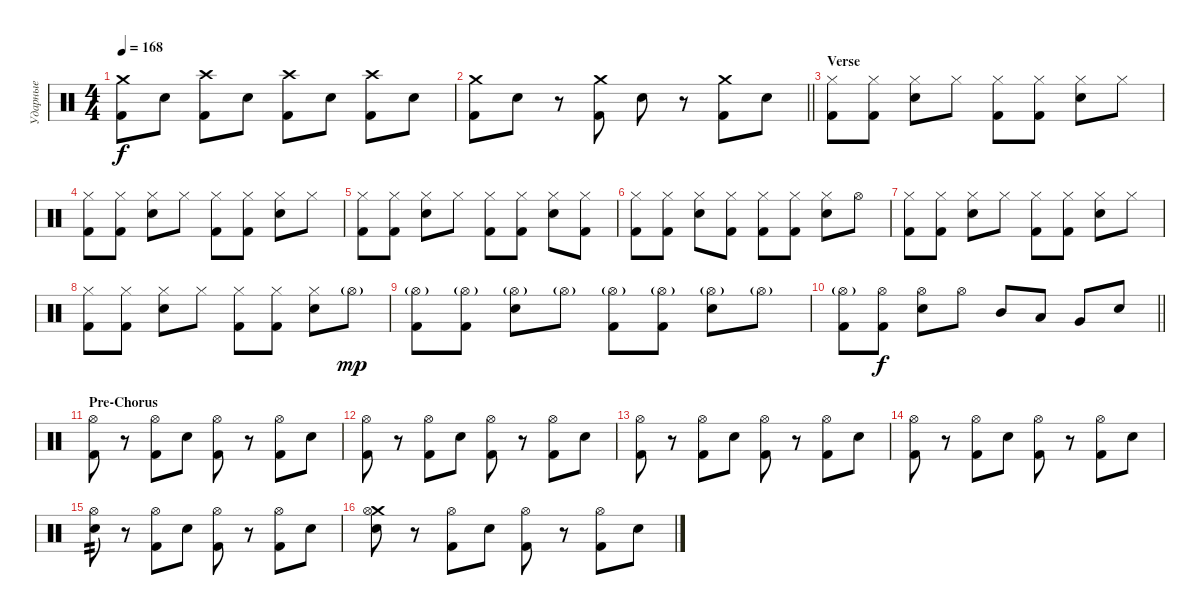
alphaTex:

\track ("Ударные" "Ударные") {instrument percussion}
\staff {score}
\articulation defaults
\ts (4 4)
\tempo 168
\clef neutral
\ks c
("Crash medium (hit)" "Kick (hit) 2").8{dy f} "Snare (hit) 2".8 ("Crash high (hit)" "Kick (hit) 2").8 "Snare (hit) 2".8 ("Crash high (hit)" "Kick (hit) 2").8 "Snare (hit) 2".8 ("Crash high (hit)" "Kick (hit) 2").8 "Snare (hit) 2".8 |
\barLineRight lightlight
("Crash medium (hit)" "Kick (hit) 2").8 "Snare (hit) 2".8 r.8 ("Crash medium (hit)" "Kick (hit) 2").8 "Snare (hit) 2".8 r.8 ("Crash medium (hit)" "Kick (hit) 2").8 "Snare (hit) 2".8 |
\section ("" "Verse")
("Hi-Hat (closed)" "Kick (hit) 2").8 ("Hi-Hat (closed)" "Kick (hit) 2").8 ("Hi-Hat (closed)" "Snare (hit) 2").8 "Hi-Hat (closed)".8 ("Hi-Hat (closed)" "Kick (hit) 2").8 ("Hi-Hat (closed)" "Kick (hit) 2").8 ("Hi-Hat (closed)" "Snare (hit) 2").8 "Hi-Hat (closed)".8 |
("Hi-Hat (closed)" "Kick (hit) 2").8 ("Hi-Hat (closed)" "Kick (hit) 2").8 ("Hi-Hat (closed)" "Snare (hit) 2").8 "Hi-Hat (closed)".8 ("Hi-Hat (closed)" "Kick (hit) 2").8 ("Hi-Hat (closed)" "Kick (hit) 2").8 ("Hi-Hat (closed)" "Snare (hit) 2").8 "Hi-Hat (closed)".8 |
("Hi-Hat (closed)" "Kick (hit) 2").8 ("Hi-Hat (closed)" "Kick (hit) 2").8 ("Hi-Hat (closed)" "Snare (hit) 2").8 "Hi-Hat (closed)".8 ("Hi-Hat (closed)" "Kick (hit) 2").8 ("Hi-Hat (closed)" "Kick (hit) 2").8 ("Hi-Hat (closed)" "Snare (hit) 2").8 ("Hi-Hat (closed)" "Kick (hit) 2").8 |
("Hi-Hat (closed)" "Kick (hit) 2").8 ("Hi-Hat (closed)" "Kick (hit) 2").8 ("Hi-Hat (closed)" "Snare (hit) 2").8 ("Hi-Hat (closed)" "Kick (hit) 2").8 ("Hi-Hat (closed)" "Kick (hit) 2").8 ("Hi-Hat (closed)" "Kick (hit) 2").8 ("Hi-Hat (closed)" "Snare (hit) 2").8 "Hi-Hat (open)".8 |
("Hi-Hat (closed)" "Kick (hit) 2").8 ("Hi-Hat (closed)" "Kick (hit) 2").8 ("Hi-Hat (closed)" "Snare (hit) 2").8 "Hi-Hat (closed)".8 ("Hi-Hat (closed)" "Kick (hit) 2").8 ("Hi-Hat (closed)" "Kick (hit) 2").8 ("Hi-Hat (closed)" "Snare (hit) 2").8 "Hi-Hat (closed)".8 |
("Hi-Hat (closed)" "Kick (hit) 2").8 ("Hi-Hat (closed)" "Kick (hit) 2").8 ("Hi-Hat (closed)" "Snare (hit) 2").8 "Hi-Hat (closed)".8 ("Hi-Hat (closed)" "Kick (hit) 2").8 ("Hi-Hat (closed)" "Kick (hit) 2").8 ("Hi-Hat (closed)" "Snare (hit) 2").8 "Hi-Hat (open)"{g}.8{dy mp} |
("Hi-Hat (open)"{g} "Kick (hit) 2").8 ("Hi-Hat (open)"{g} "Kick (hit) 2").8 ("Hi-Hat (open)"{g} "Snare (hit) 2").8 "Hi-Hat (open)"{g}.8 ("Hi-Hat (open)"{g} "Kick (hit) 2").8 ("Hi-Hat (open)"{g} "Kick (hit) 2").8 ("Hi-Hat (open)"{g} "Snare (hit) 2").8 "Hi-Hat (open)"{g}.8 |
\barLineRight lightlight
("Hi-Hat (open)"{g} "Kick (hit) 2").8 ("Hi-Hat (open)" "Kick (hit) 2").8{dy f} ("Hi-Hat (open)" "Snare (hit) 2").8 "Hi-Hat (open)".8 "Mid Tom (hit)".8 "Low Tom (hit)".8 "Very Low Tom (hit)".8 "Snare (hit) 2".8 |
\section ("" "Pre-Chorus")
("Hi-Hat (open)" "Kick (hit) 2").8 r.8 ("Hi-Hat (open)" "Kick (hit) 2").8 "Snare (hit) 2".8 ("Hi-Hat (open)" "Kick (hit) 2").8 r.8 ("Hi-Hat (open)" "Kick (hit) 2").8 "Snare (hit) 2".8 |
("Hi-Hat (open)" "Kick (hit) 2").8 r.8 ("Hi-Hat (open)" "Kick (hit) 2").8 "Snare (hit) 2".8 ("Hi-Hat (open)" "Kick (hit) 2").8 r.8 ("Hi-Hat (open)" "Kick (hit) 2").8 "Snare (hit) 2".8 |
("Hi-Hat (open)" "Kick (hit) 2").8 r.8 ("Hi-Hat (open)" "Kick (hit) 2").8 "Snare (hit) 2".8 ("Hi-Hat (open)" "Kick (hit) 2").8 r.8 ("Hi-Hat (open)" "Kick (hit) 2").8 "Snare (hit) 2".8 |
("Hi-Hat (open)" "Kick (hit) 2").8 r.8 ("Hi-Hat (open)" "Kick (hit) 2").8 "Snare (hit) 2".8 ("Hi-Hat (open)" "Kick (hit) 2").8 r.8 ("Hi-Hat (open)" "Kick (hit) 2").8 "Snare (hit) 2".8 |
("Hi-Hat (open)" "Snare (hit) 2").8{tp 2} r.8 ("Hi-Hat (open)" "Kick (hit) 2").8 "Snare (hit) 2".8 ("Hi-Hat (open)" "Kick (hit) 2").8 r.8 ("Hi-Hat (open)" "Kick (hit) 2").8 "Snare (hit) 2".8 |
("Crash medium (hit)" "Hi-Hat (open)" "Snare (hit) 2").8 r.8 ("Hi-Hat (open)" "Kick (hit) 2").8 "Snare (hit) 2".8 ("Hi-Hat (open)" "Kick (hit) 2").8 r.8 ("Hi-Hat (open)" "Kick (hit) 2").8 "Snare (hit) 2".8
